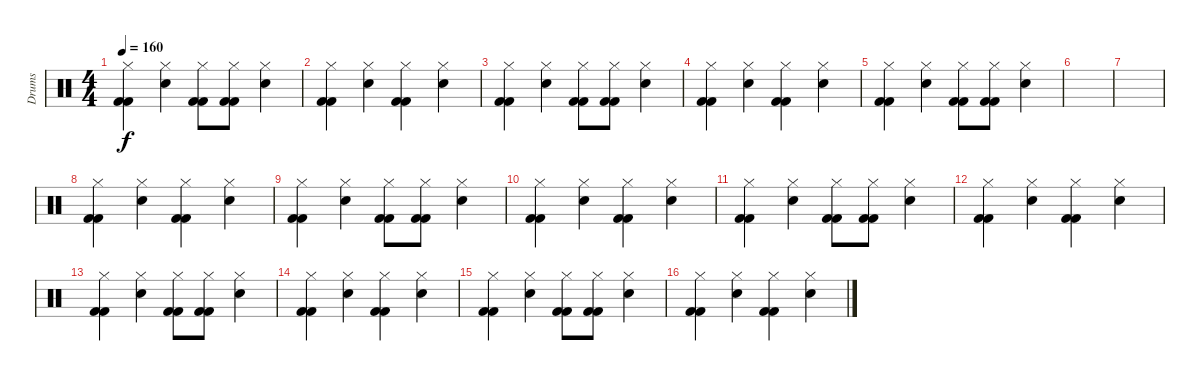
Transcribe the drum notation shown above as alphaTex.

\track ("Drums" "Drums") {instrument percussion}
\staff {score}
\articulation defaults
\ts (4 4)
\tempo 160
\clef neutral
\ks c
("Hi-Hat (closed)" "Kick (hit) 2" "Kick (hit) 2").4{dy f} ("Hi-Hat (closed)" "Snare (hit) 2").4 ("Hi-Hat (closed)" "Kick (hit) 2" "Kick (hit) 2").8 ("Hi-Hat (closed)" "Kick (hit) 2" "Kick (hit) 2").8 ("Hi-Hat (closed)" "Snare (hit) 2").4 |
("Hi-Hat (closed)" "Kick (hit) 2" "Kick (hit) 2").4 ("Hi-Hat (closed)" "Snare (hit) 2").4 ("Hi-Hat (closed)" "Kick (hit) 2" "Kick (hit) 2").4 ("Hi-Hat (closed)" "Snare (hit) 2").4 |
("Hi-Hat (closed)" "Kick (hit) 2" "Kick (hit) 2").4 ("Hi-Hat (closed)" "Snare (hit) 2").4 ("Hi-Hat (closed)" "Kick (hit) 2" "Kick (hit) 2").8 ("Hi-Hat (closed)" "Kick (hit) 2" "Kick (hit) 2").8 ("Hi-Hat (closed)" "Snare (hit) 2").4 |
("Hi-Hat (closed)" "Kick (hit) 2" "Kick (hit) 2").4 ("Hi-Hat (closed)" "Snare (hit) 2").4 ("Hi-Hat (closed)" "Kick (hit) 2" "Kick (hit) 2").4 ("Hi-Hat (closed)" "Snare (hit) 2").4 |
("Hi-Hat (closed)" "Kick (hit) 2" "Kick (hit) 2").4 ("Hi-Hat (closed)" "Snare (hit) 2").4 ("Hi-Hat (closed)" "Kick (hit) 2" "Kick (hit) 2").8 ("Hi-Hat (closed)" "Kick (hit) 2" "Kick (hit) 2").8 ("Hi-Hat (closed)" "Snare (hit) 2").4 |
|
|
("Hi-Hat (closed)" "Kick (hit) 2" "Kick (hit) 2").4 ("Hi-Hat (closed)" "Snare (hit) 2").4 ("Hi-Hat (closed)" "Kick (hit) 2" "Kick (hit) 2").4 ("Hi-Hat (closed)" "Snare (hit) 2").4 |
("Hi-Hat (closed)" "Kick (hit) 2" "Kick (hit) 2").4 ("Hi-Hat (closed)" "Snare (hit) 2").4 ("Hi-Hat (closed)" "Kick (hit) 2" "Kick (hit) 2").8 ("Hi-Hat (closed)" "Kick (hit) 2" "Kick (hit) 2").8 ("Hi-Hat (closed)" "Snare (hit) 2").4 |
("Hi-Hat (closed)" "Kick (hit) 2" "Kick (hit) 2").4 ("Hi-Hat (closed)" "Snare (hit) 2").4 ("Hi-Hat (closed)" "Kick (hit) 2" "Kick (hit) 2").4 ("Hi-Hat (closed)" "Snare (hit) 2").4 |
("Hi-Hat (closed)" "Kick (hit) 2" "Kick (hit) 2").4 ("Hi-Hat (closed)" "Snare (hit) 2").4 ("Hi-Hat (closed)" "Kick (hit) 2" "Kick (hit) 2").8 ("Hi-Hat (closed)" "Kick (hit) 2" "Kick (hit) 2").8 ("Hi-Hat (closed)" "Snare (hit) 2").4 |
("Hi-Hat (closed)" "Kick (hit) 2" "Kick (hit) 2").4 ("Hi-Hat (closed)" "Snare (hit) 2").4 ("Hi-Hat (closed)" "Kick (hit) 2" "Kick (hit) 2").4 ("Hi-Hat (closed)" "Snare (hit) 2").4 |
("Hi-Hat (closed)" "Kick (hit) 2" "Kick (hit) 2").4 ("Hi-Hat (closed)" "Snare (hit) 2").4 ("Hi-Hat (closed)" "Kick (hit) 2" "Kick (hit) 2").8 ("Hi-Hat (closed)" "Kick (hit) 2" "Kick (hit) 2").8 ("Hi-Hat (closed)" "Snare (hit) 2").4 |
("Hi-Hat (closed)" "Kick (hit) 2" "Kick (hit) 2").4 ("Hi-Hat (closed)" "Snare (hit) 2").4 ("Hi-Hat (closed)" "Kick (hit) 2" "Kick (hit) 2").4 ("Hi-Hat (closed)" "Snare (hit) 2").4 |
("Hi-Hat (closed)" "Kick (hit) 2" "Kick (hit) 2").4 ("Hi-Hat (closed)" "Snare (hit) 2").4 ("Hi-Hat (closed)" "Kick (hit) 2" "Kick (hit) 2").8 ("Hi-Hat (closed)" "Kick (hit) 2" "Kick (hit) 2").8 ("Hi-Hat (closed)" "Snare (hit) 2").4 |
("Hi-Hat (closed)" "Kick (hit) 2" "Kick (hit) 2").4 ("Hi-Hat (closed)" "Snare (hit) 2").4 ("Hi-Hat (closed)" "Kick (hit) 2" "Kick (hit) 2").4 ("Hi-Hat (closed)" "Snare (hit) 2").4
